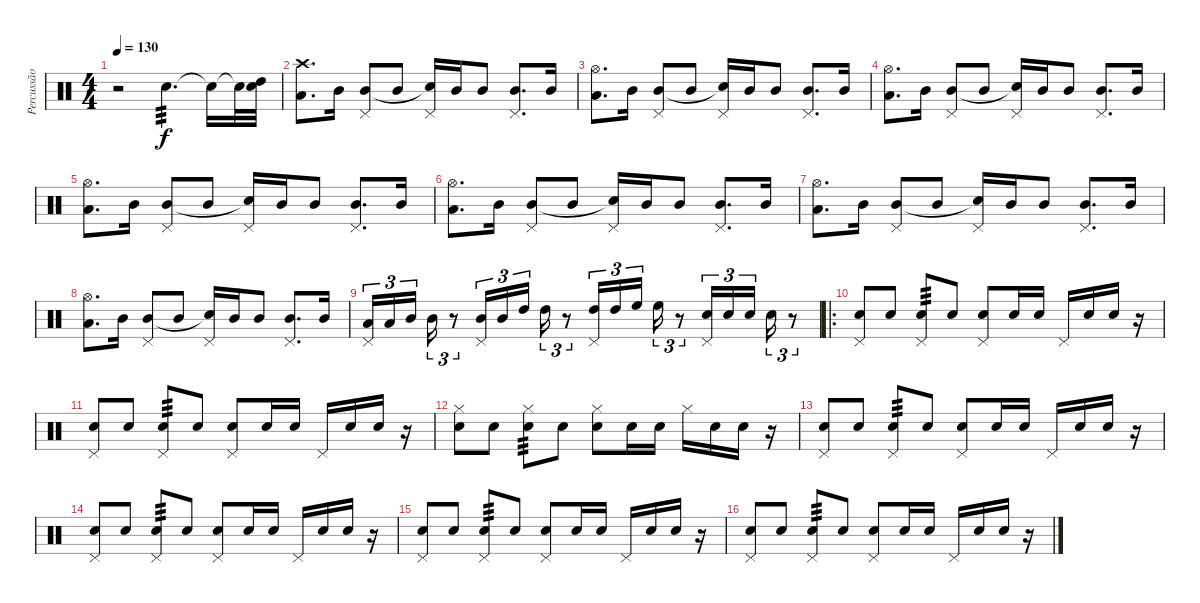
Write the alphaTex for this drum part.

\track ("Percussão" "Percussão") {instrument percussion}
\staff {score}
\articulation defaults
\ts (4 4)
\tempo 130
\clef neutral
\ks c
r.2{dy f volume 0} "Electric Snare (hit)".4{d tp 3 volume 7} "Snare (hit)"{t}.16 "Snare (hit)"{t}.32 ("High Tom (hit)" "Snare (hit) 2").32 |
("Crash high (hit)" "Low Tom (hit)").8{d} "Mid Tom (hit)".16 ("Pedal Hi-Hat (hit)" "Mid Tom (hit)").8 "Mid Tom (hit)".8 ("Pedal Hi-Hat (hit)" "Snare (hit)"{t}).16 "Mid Tom (hit)".16 "Mid Tom (hit)".8 ("Pedal Hi-Hat (hit)" "Mid Tom (hit)").8{d} "Mid Tom (hit)".16 |
("Hi-Hat (open)" "Low Tom (hit)").8{d} "Mid Tom (hit)".16 ("Pedal Hi-Hat (hit)" "Mid Tom (hit)").8 "Mid Tom (hit)".8 ("Pedal Hi-Hat (hit)" "Snare (hit)"{t}).16 "Mid Tom (hit)".16 "Mid Tom (hit)".8 ("Pedal Hi-Hat (hit)" "Mid Tom (hit)").8{d} "Mid Tom (hit)".16 |
("Hi-Hat (open)" "Low Tom (hit)").8{d} "Mid Tom (hit)".16 ("Pedal Hi-Hat (hit)" "Mid Tom (hit)").8 "Mid Tom (hit)".8 ("Pedal Hi-Hat (hit)" "Snare (hit)"{t}).16 "Mid Tom (hit)".16 "Mid Tom (hit)".8 ("Pedal Hi-Hat (hit)" "Mid Tom (hit)").8{d} "Mid Tom (hit)".16 |
("Hi-Hat (open)" "Low Tom (hit)").8{d} "Mid Tom (hit)".16 ("Pedal Hi-Hat (hit)" "Mid Tom (hit)").8 "Mid Tom (hit)".8 ("Pedal Hi-Hat (hit)" "Snare (hit)"{t}).16 "Mid Tom (hit)".16 "Mid Tom (hit)".8 ("Pedal Hi-Hat (hit)" "Mid Tom (hit)").8{d} "Mid Tom (hit)".16 |
("Hi-Hat (open)" "Low Tom (hit)").8{d} "Mid Tom (hit)".16 ("Pedal Hi-Hat (hit)" "Mid Tom (hit)").8 "Mid Tom (hit)".8 ("Pedal Hi-Hat (hit)" "Snare (hit)"{t}).16 "Mid Tom (hit)".16 "Mid Tom (hit)".8 ("Pedal Hi-Hat (hit)" "Mid Tom (hit)").8{d} "Mid Tom (hit)".16 |
("Hi-Hat (open)" "Low Tom (hit)").8{d} "Mid Tom (hit)".16 ("Pedal Hi-Hat (hit)" "Mid Tom (hit)").8 "Mid Tom (hit)".8 ("Pedal Hi-Hat (hit)" "Snare (hit)"{t}).16 "Mid Tom (hit)".16 "Mid Tom (hit)".8 ("Pedal Hi-Hat (hit)" "Mid Tom (hit)").8{d} "Mid Tom (hit)".16 |
("Hi-Hat (open)" "Low Tom (hit)").8{d} "Mid Tom (hit)".16 ("Pedal Hi-Hat (hit)" "Mid Tom (hit)").8 "Mid Tom (hit)".8 ("Pedal Hi-Hat (hit)" "Snare (hit)"{t}).16 "Mid Tom (hit)".16 "Mid Tom (hit)".8 ("Pedal Hi-Hat (hit)" "Mid Tom (hit)").8{d} "Mid Tom (hit)".16 |
("Pedal Hi-Hat (hit)" "Low Tom (hit)").16{tu (3 2)} "Low Tom (hit)".16{tu (3 2)} "Mid Tom (hit)".16{tu (3 2) beam splitsecondary} "Mid Tom (hit)".16{tu (3 2)} r.8{tu (3 2)} ("Pedal Hi-Hat (hit)" "Mid Tom (hit)").16{tu (3 2)} "Mid Tom (hit)".16{tu (3 2)} "High Tom (hit)".16{tu (3 2) beam splitsecondary} "High Tom (hit)".16{tu (3 2)} r.8{tu (3 2)} ("Pedal Hi-Hat (hit)" "High Tom (hit)").16{tu (3 2)} "High Tom (hit)".16{tu (3 2)} "High Floor Tom (hit)".16{tu (3 2) beam splitsecondary} "High Floor Tom (hit)".16{tu (3 2)} r.8{tu (3 2)} ("Pedal Hi-Hat (hit)" "Electric Snare (hit)").16{tu (3 2)} "Electric Snare (hit)".16{tu (3 2)} "Electric Snare (hit)".16{tu (3 2) beam splitsecondary} "Electric Snare (hit)".16{tu (3 2)} r.8{tu (3 2)} |
\ro
("Pedal Hi-Hat (hit)" "Electric Snare (hit)").8 "Electric Snare (hit)".8 ("Pedal Hi-Hat (hit)" "Electric Snare (hit)").8{tp 3} "Electric Snare (hit)".8 ("Pedal Hi-Hat (hit)" "Electric Snare (hit)").8 "Electric Snare (hit)".16 "Electric Snare (hit)".16 "Pedal Hi-Hat (hit)".16 "Electric Snare (hit)".16 "Electric Snare (hit)".16 r.16 |
("Pedal Hi-Hat (hit)" "Electric Snare (hit)").8 "Electric Snare (hit)".8 ("Pedal Hi-Hat (hit)" "Electric Snare (hit)").8{tp 3} "Electric Snare (hit)".8 ("Pedal Hi-Hat (hit)" "Electric Snare (hit)").8 "Electric Snare (hit)".16 "Electric Snare (hit)".16 "Pedal Hi-Hat (hit)".16 "Electric Snare (hit)".16 "Electric Snare (hit)".16 r.16 |
("Hi-Hat (closed)" "Electric Snare (hit)").8 "Electric Snare (hit)".8 ("Hi-Hat (closed)" "Electric Snare (hit)").8{tp 3} "Electric Snare (hit)".8 ("Hi-Hat (closed)" "Electric Snare (hit)").8 "Electric Snare (hit)".16 "Electric Snare (hit)".16 "Hi-Hat (closed)".16 "Electric Snare (hit)".16 "Electric Snare (hit)".16 r.16 |
("Pedal Hi-Hat (hit)" "Electric Snare (hit)").8 "Electric Snare (hit)".8 ("Pedal Hi-Hat (hit)" "Electric Snare (hit)").8{tp 3} "Electric Snare (hit)".8 ("Pedal Hi-Hat (hit)" "Electric Snare (hit)").8 "Electric Snare (hit)".16 "Electric Snare (hit)".16 "Pedal Hi-Hat (hit)".16 "Electric Snare (hit)".16 "Electric Snare (hit)".16 r.16 |
("Pedal Hi-Hat (hit)" "Electric Snare (hit)").8 "Electric Snare (hit)".8 ("Pedal Hi-Hat (hit)" "Electric Snare (hit)").8{tp 3} "Electric Snare (hit)".8 ("Pedal Hi-Hat (hit)" "Electric Snare (hit)").8 "Electric Snare (hit)".16 "Electric Snare (hit)".16 "Pedal Hi-Hat (hit)".16 "Electric Snare (hit)".16 "Electric Snare (hit)".16 r.16 |
("Pedal Hi-Hat (hit)" "Electric Snare (hit)").8 "Electric Snare (hit)".8 ("Pedal Hi-Hat (hit)" "Electric Snare (hit)").8{tp 3} "Electric Snare (hit)".8 ("Pedal Hi-Hat (hit)" "Electric Snare (hit)").8 "Electric Snare (hit)".16 "Electric Snare (hit)".16 "Pedal Hi-Hat (hit)".16 "Electric Snare (hit)".16 "Electric Snare (hit)".16 r.16 |
("Pedal Hi-Hat (hit)" "Electric Snare (hit)").8 "Electric Snare (hit)".8 ("Pedal Hi-Hat (hit)" "Electric Snare (hit)").8{tp 3} "Electric Snare (hit)".8 ("Pedal Hi-Hat (hit)" "Electric Snare (hit)").8 "Electric Snare (hit)".16 "Electric Snare (hit)".16 "Pedal Hi-Hat (hit)".16 "Electric Snare (hit)".16 "Electric Snare (hit)".16 r.16
